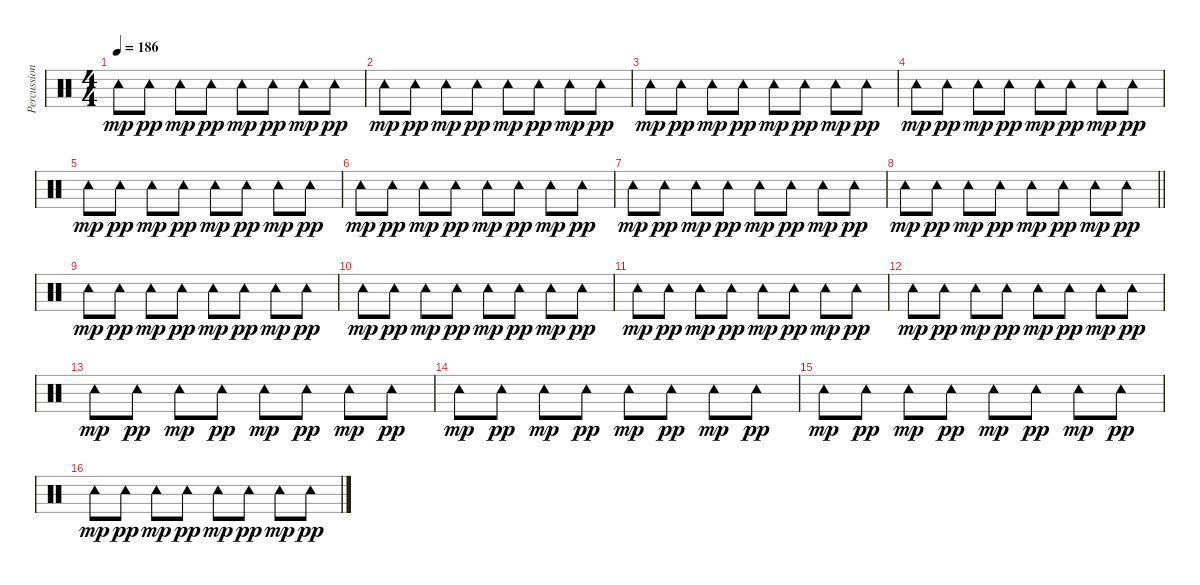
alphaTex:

\track ("Percussion" "Percussion") {instrument percussion}
\staff {score}
\articulation defaults
\ts (4 4)
\tempo 186
\clef neutral
\ks c "Tambourine (hit)".8{dy mp} "Tambourine (hit)".8{dy pp} "Tambourine (hit)".8{dy mp} "Tambourine (hit)".8{dy pp} "Tambourine (hit)".8{dy mp} "Tambourine (hit)".8{dy pp} "Tambourine (hit)".8{dy mp} "Tambourine (hit)".8{dy pp}
|
"Tambourine (hit)".8{dy mp} "Tambourine (hit)".8{dy pp} "Tambourine (hit)".8{dy mp} "Tambourine (hit)".8{dy pp} "Tambourine (hit)".8{dy mp} "Tambourine (hit)".8{dy pp} "Tambourine (hit)".8{dy mp} "Tambourine (hit)".8{dy pp} |
"Tambourine (hit)".8{dy mp} "Tambourine (hit)".8{dy pp} "Tambourine (hit)".8{dy mp} "Tambourine (hit)".8{dy pp} "Tambourine (hit)".8{dy mp} "Tambourine (hit)".8{dy pp} "Tambourine (hit)".8{dy mp} "Tambourine (hit)".8{dy pp} |
"Tambourine (hit)".8{dy mp} "Tambourine (hit)".8{dy pp} "Tambourine (hit)".8{dy mp} "Tambourine (hit)".8{dy pp} "Tambourine (hit)".8{dy mp} "Tambourine (hit)".8{dy pp} "Tambourine (hit)".8{dy mp} "Tambourine (hit)".8{dy pp} |
"Tambourine (hit)".8{dy mp} "Tambourine (hit)".8{dy pp} "Tambourine (hit)".8{dy mp} "Tambourine (hit)".8{dy pp} "Tambourine (hit)".8{dy mp} "Tambourine (hit)".8{dy pp} "Tambourine (hit)".8{dy mp} "Tambourine (hit)".8{dy pp} |
"Tambourine (hit)".8{dy mp} "Tambourine (hit)".8{dy pp} "Tambourine (hit)".8{dy mp} "Tambourine (hit)".8{dy pp} "Tambourine (hit)".8{dy mp} "Tambourine (hit)".8{dy pp} "Tambourine (hit)".8{dy mp} "Tambourine (hit)".8{dy pp} |
"Tambourine (hit)".8{dy mp} "Tambourine (hit)".8{dy pp} "Tambourine (hit)".8{dy mp} "Tambourine (hit)".8{dy pp} "Tambourine (hit)".8{dy mp} "Tambourine (hit)".8{dy pp} "Tambourine (hit)".8{dy mp} "Tambourine (hit)".8{dy pp} |
\barLineRight lightlight "Tambourine (hit)".8{dy mp} "Tambourine (hit)".8{dy pp} "Tambourine (hit)".8{dy mp} "Tambourine (hit)".8{dy pp} "Tambourine (hit)".8{dy mp} "Tambourine (hit)".8{dy pp} "Tambourine (hit)".8{dy mp} "Tambourine (hit)".8{dy pp}
|
\section ("" "")
"Tambourine (hit)".8{dy mp} "Tambourine (hit)".8{dy pp} "Tambourine (hit)".8{dy mp} "Tambourine (hit)".8{dy pp} "Tambourine (hit)".8{dy mp} "Tambourine (hit)".8{dy pp} "Tambourine (hit)".8{dy mp} "Tambourine (hit)".8{dy pp} |
"Tambourine (hit)".8{dy mp} "Tambourine (hit)".8{dy pp} "Tambourine (hit)".8{dy mp} "Tambourine (hit)".8{dy pp} "Tambourine (hit)".8{dy mp} "Tambourine (hit)".8{dy pp} "Tambourine (hit)".8{dy mp} "Tambourine (hit)".8{dy pp} |
"Tambourine (hit)".8{dy mp} "Tambourine (hit)".8{dy pp} "Tambourine (hit)".8{dy mp} "Tambourine (hit)".8{dy pp} "Tambourine (hit)".8{dy mp} "Tambourine (hit)".8{dy pp} "Tambourine (hit)".8{dy mp} "Tambourine (hit)".8{dy pp} |
"Tambourine (hit)".8{dy mp} "Tambourine (hit)".8{dy pp} "Tambourine (hit)".8{dy mp} "Tambourine (hit)".8{dy pp} "Tambourine (hit)".8{dy mp} "Tambourine (hit)".8{dy pp} "Tambourine (hit)".8{dy mp} "Tambourine (hit)".8{dy pp} |
"Tambourine (hit)".8{dy mp} "Tambourine (hit)".8{dy pp} "Tambourine (hit)".8{dy mp} "Tambourine (hit)".8{dy pp} "Tambourine (hit)".8{dy mp} "Tambourine (hit)".8{dy pp} "Tambourine (hit)".8{dy mp} "Tambourine (hit)".8{dy pp} |
"Tambourine (hit)".8{dy mp} "Tambourine (hit)".8{dy pp} "Tambourine (hit)".8{dy mp} "Tambourine (hit)".8{dy pp} "Tambourine (hit)".8{dy mp} "Tambourine (hit)".8{dy pp} "Tambourine (hit)".8{dy mp} "Tambourine (hit)".8{dy pp} |
"Tambourine (hit)".8{dy mp} "Tambourine (hit)".8{dy pp} "Tambourine (hit)".8{dy mp} "Tambourine (hit)".8{dy pp} "Tambourine (hit)".8{dy mp} "Tambourine (hit)".8{dy pp} "Tambourine (hit)".8{dy mp} "Tambourine (hit)".8{dy pp} |
"Tambourine (hit)".8{dy mp} "Tambourine (hit)".8{dy pp} "Tambourine (hit)".8{dy mp} "Tambourine (hit)".8{dy pp} "Tambourine (hit)".8{dy mp} "Tambourine (hit)".8{dy pp} "Tambourine (hit)".8{dy mp} "Tambourine (hit)".8{dy pp}
